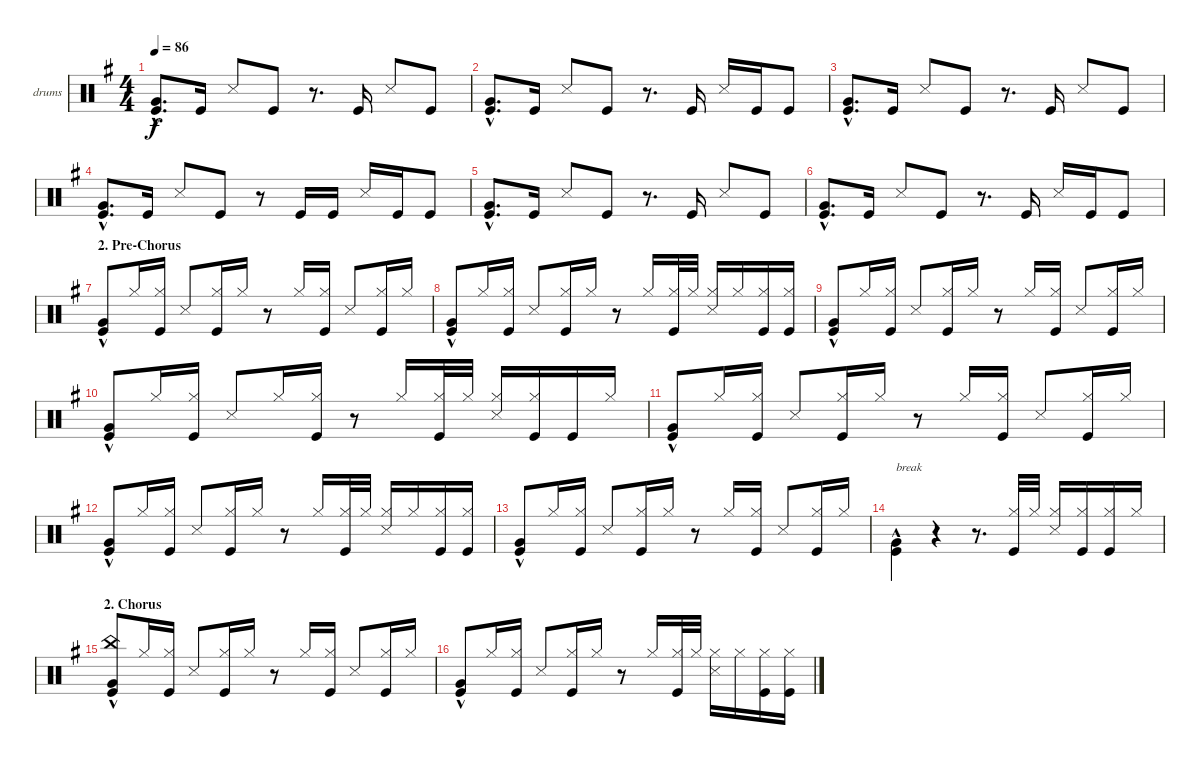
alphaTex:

\defaultSystemsLayout 4
\bracketExtendMode groupsimilarinstruments
\firstSystemTrackNameOrientation horizontal
\otherSystemsTrackNameOrientation horizontal
\track ("drums" "drums") {instrument percussion}
\staff {score}
\articulation defaults
\ts (4 4)
\tempo 86
\clef neutral
\ks g
("Kick (hit)" "Very Low Tom (hit)"{hac}).8{d dy f} "Kick (hit)".16 "Snare (side stick) 3".8 "Kick (hit)".8 r.8{d} "Kick (hit)".16 "Snare (side stick) 3".8 "Kick (hit)".8 |
("Kick (hit)" "Very Low Tom (hit)"{hac}).8{d} "Kick (hit)".16 "Snare (side stick) 3".8 "Kick (hit)".8 r.8{d} "Kick (hit)".16 "Snare (side stick) 3".16 "Kick (hit)".16 "Kick (hit)".8 |
("Kick (hit)" "Very Low Tom (hit)"{hac}).8{d} "Kick (hit)".16 "Snare (side stick) 3".8 "Kick (hit)".8 r.8{d} "Kick (hit)".16 "Snare (side stick) 3".8 "Kick (hit)".8 |
("Kick (hit)" "Very Low Tom (hit)"{hac}).8{d} "Kick (hit)".16 "Snare (side stick) 3".8 "Kick (hit)".8 r.8 "Kick (hit)".16 "Kick (hit)".16 "Snare (side stick) 3".16 "Kick (hit)".16 "Kick (hit)".8 |
("Kick (hit)" "Very Low Tom (hit)"{hac}).8{d} "Kick (hit)".16 "Snare (side stick) 3".8 "Kick (hit)".8 r.8{d} "Kick (hit)".16 "Snare (side stick) 3".8 "Kick (hit)".8 |
("Kick (hit)" "Very Low Tom (hit)"{hac}).8{d} "Kick (hit)".16 "Snare (side stick) 3".8 "Kick (hit)".8 r.8{d} "Kick (hit)".16 "Snare (side stick) 3".16 "Kick (hit)".16 "Kick (hit)".8 |
\section ("" "2. Pre-Chorus")
("Kick (hit)" "Very Low Tom (hit)"{hac}).8{beam invert} "Hi-Hat (closed)".16 ("Kick (hit)" "Hi-Hat (closed)").16 "Snare (side stick) 3".8{beam invert} ("Kick (hit)" "Hi-Hat (closed)").16 "Hi-Hat (closed)".16 r.8{beam invert} "Hi-Hat (closed)".16 ("Kick (hit)" "Hi-Hat (closed)").16{beam invert} "Snare (side stick) 3".8{beam invert} ("Kick (hit)" "Hi-Hat (closed)").16 "Hi-Hat (closed)".16 |
("Kick (hit)" "Very Low Tom (hit)"{hac}).8{beam invert} "Hi-Hat (closed)".16 ("Kick (hit)" "Hi-Hat (closed)").16 "Snare (side stick) 3".8{beam invert} ("Kick (hit)" "Hi-Hat (closed)").16 "Hi-Hat (closed)".16 r.8{beam invert} "Hi-Hat (closed)".16 ("Kick (hit)" "Hi-Hat (closed)").32{beam invert} "Hi-Hat (closed)".32 ("Snare (side stick) 3" "Hi-Hat (closed)").16{beam invert} "Hi-Hat (closed)".16 ("Kick (hit)" "Hi-Hat (closed)").16{beam invert} ("Kick (hit)" "Hi-Hat (closed)").16{beam invert} |
("Kick (hit)" "Very Low Tom (hit)"{hac}).8{beam invert} "Hi-Hat (closed)".16 ("Kick (hit)" "Hi-Hat (closed)").16 "Snare (side stick) 3".8{beam invert} ("Kick (hit)" "Hi-Hat (closed)").16 "Hi-Hat (closed)".16 r.8 "Hi-Hat (closed)".16 ("Kick (hit)" "Hi-Hat (closed)").16{beam invert} "Snare (side stick) 3".8{beam invert} ("Kick (hit)" "Hi-Hat (closed)").16 "Hi-Hat (closed)".16 |
("Kick (hit)" "Very Low Tom (hit)"{hac}).8{beam invert} "Hi-Hat (closed)".16 ("Kick (hit)" "Hi-Hat (closed)").16 "Snare (side stick) 3".8{beam invert} "Hi-Hat (closed)".16 ("Kick (hit)" "Hi-Hat (closed)").16 r.8{beam invert} "Hi-Hat (closed)".16 ("Kick (hit)" "Hi-Hat (closed)").32{beam invert} "Hi-Hat (closed)".32 ("Snare (side stick) 3" "Hi-Hat (closed)").16{beam invert} ("Kick (hit)" "Hi-Hat (closed)").16 "Kick (hit)".16 "Hi-Hat (closed)".16 |
("Kick (hit)" "Very Low Tom (hit)"{hac}).8{beam invert} "Hi-Hat (closed)".16 ("Kick (hit)" "Hi-Hat (closed)").16 "Snare (side stick) 3".8{beam invert} ("Kick (hit)" "Hi-Hat (closed)").16 "Hi-Hat (closed)".16 r.8{beam invert} "Hi-Hat (closed)".16 ("Kick (hit)" "Hi-Hat (closed)").16{beam invert} "Snare (side stick) 3".8{beam invert} ("Kick (hit)" "Hi-Hat (closed)").16 "Hi-Hat (closed)".16 |
("Kick (hit)" "Very Low Tom (hit)"{hac}).8{beam invert} "Hi-Hat (closed)".16 ("Kick (hit)" "Hi-Hat (closed)").16 "Snare (side stick) 3".8{beam invert} ("Kick (hit)" "Hi-Hat (closed)").16 "Hi-Hat (closed)".16 r.8{beam invert} "Hi-Hat (closed)".16 ("Kick (hit)" "Hi-Hat (closed)").32{beam invert} "Hi-Hat (closed)".32 ("Snare (side stick) 3" "Hi-Hat (closed)").16{beam invert} "Hi-Hat (closed)".16 ("Kick (hit)" "Hi-Hat (closed)").16{beam invert} ("Kick (hit)" "Hi-Hat (closed)").16{beam invert} |
("Kick (hit)" "Very Low Tom (hit)"{hac}).8{beam invert} "Hi-Hat (closed)".16 ("Kick (hit)" "Hi-Hat (closed)").16 "Snare (side stick) 3".8{beam invert} ("Kick (hit)" "Hi-Hat (closed)").16 "Hi-Hat (closed)".16 r.8 "Hi-Hat (closed)".16 ("Kick (hit)" "Hi-Hat (closed)").16{beam invert} "Snare (side stick) 3".8{beam invert} ("Kick (hit)" "Hi-Hat (closed)").16 "Hi-Hat (closed)".16 |
("Kick (hit)" "Very Low Tom (hit)"{hac}).4{txt "break" beam invert} r.4{beam invert} r.8{d} ("Kick (hit)" "Hi-Hat (closed)").32{beam invert} "Hi-Hat (closed)".32 ("Snare (side stick) 3" "Hi-Hat (closed)").16{beam invert} ("Kick (hit)" "Hi-Hat (closed)").16 ("Kick (hit)" "Hi-Hat (closed)").16 "Hi-Hat (closed)".16 |
\section ("" "2. Chorus")
("Kick (hit)" "Very Low Tom (hit)"{hac} "China (hit)").8 "Hi-Hat (closed)".16 ("Kick (hit)" "Hi-Hat (closed)").16 "Snare (side stick) 3".8{beam invert} ("Kick (hit)" "Hi-Hat (closed)").16 "Hi-Hat (closed)".16 r.8 "Hi-Hat (closed)".16 ("Kick (hit)" "Hi-Hat (closed)").16 "Snare (side stick) 3".8{beam invert} ("Kick (hit)" "Hi-Hat (closed)").16 "Hi-Hat (closed)".16 |
("Kick (hit)" "Very Low Tom (hit)"{hac}).8 "Hi-Hat (closed)".16 ("Kick (hit)" "Hi-Hat (closed)").16 "Snare (side stick) 3".8{beam invert} ("Kick (hit)" "Hi-Hat (closed)").16 "Hi-Hat (closed)".16 r.8 "Hi-Hat (closed)".16{beam invert} ("Kick (hit)" "Hi-Hat (closed)").32 "Hi-Hat (closed)".32 ("Snare (side stick) 3" "Hi-Hat (closed)").16 "Hi-Hat (closed)".16 ("Kick (hit)" "Hi-Hat (closed)").16 ("Kick (hit)" "Hi-Hat (closed)").16
